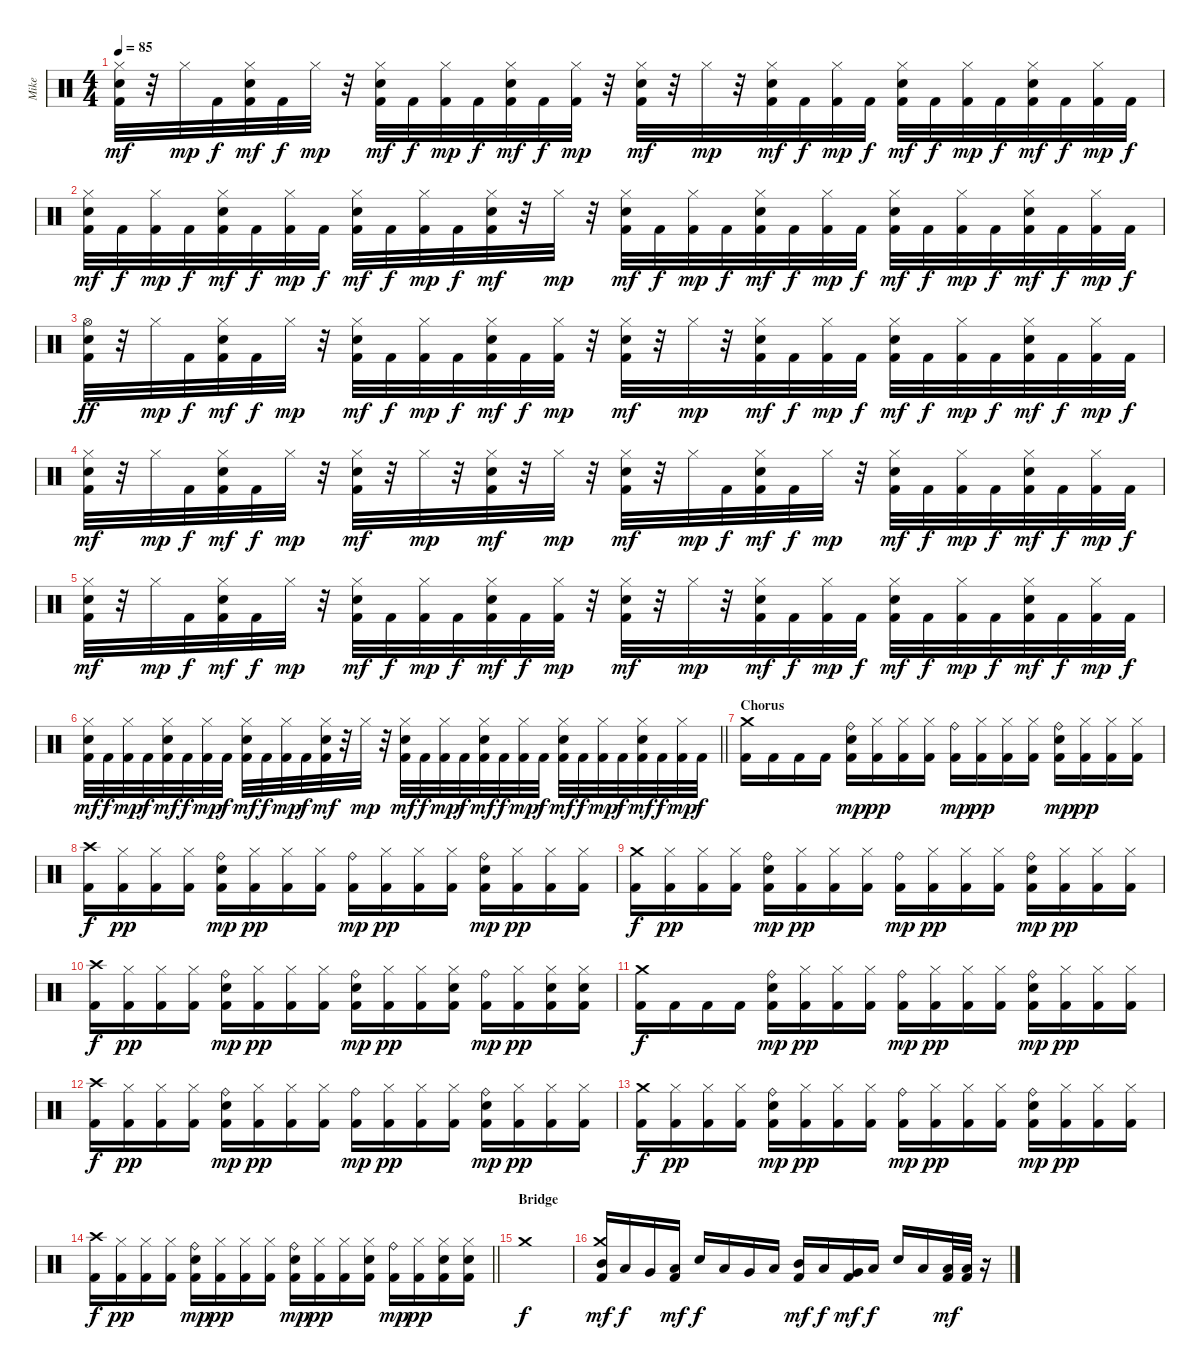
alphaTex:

\track ("Mike" "Mike") {instrument percussion}
\staff {score}
\articulation defaults
\ts (4 4)
\tempo 85
\clef neutral
\ks c
("Hi-Hat (closed)" "Snare (hit) 2" "Kick (hit) 2").32{dy mf} r.32 "Hi-Hat (closed)".32{dy mp} "Kick (hit) 2".32{dy f} ("Hi-Hat (closed)" "Snare (hit) 2" "Kick (hit) 2").32{dy mf} "Kick (hit) 2".32{dy f} "Hi-Hat (closed)".32{dy mp} r.32 ("Hi-Hat (closed)" "Snare (hit) 2" "Kick (hit) 2").32{dy mf} "Kick (hit) 2".32{dy f} ("Hi-Hat (closed)" "Kick (hit) 2").32{dy mp} "Kick (hit) 2".32{dy f} ("Hi-Hat (closed)" "Snare (hit) 2" "Kick (hit) 2").32{dy mf} "Kick (hit) 2".32{dy f} ("Hi-Hat (closed)" "Kick (hit) 2").32{dy mp} r.32 ("Hi-Hat (closed)" "Snare (hit) 2" "Kick (hit) 2").32{dy mf} r.32 "Hi-Hat (closed)".32{dy mp} r.32 ("Hi-Hat (closed)" "Snare (hit) 2" "Kick (hit) 2").32{dy mf} "Kick (hit) 2".32{dy f} ("Hi-Hat (closed)" "Kick (hit) 2").32{dy mp} "Kick (hit) 2".32{dy f} ("Hi-Hat (closed)" "Snare (hit) 2" "Kick (hit) 2").32{dy mf} "Kick (hit) 2".32{dy f} ("Hi-Hat (closed)" "Kick (hit) 2").32{dy mp} "Kick (hit) 2".32{dy f} ("Hi-Hat (closed)" "Snare (hit) 2" "Kick (hit) 2").32{dy mf} "Kick (hit) 2".32{dy f} ("Hi-Hat (closed)" "Kick (hit) 2").32{dy mp} "Kick (hit) 2".32{dy f} |
("Hi-Hat (closed)" "Snare (hit) 2" "Kick (hit) 2").32{dy mf} "Kick (hit) 2".32{dy f} ("Hi-Hat (closed)" "Kick (hit) 2").32{dy mp} "Kick (hit) 2".32{dy f} ("Hi-Hat (closed)" "Snare (hit) 2" "Kick (hit) 2").32{dy mf} "Kick (hit) 2".32{dy f} ("Hi-Hat (closed)" "Kick (hit) 2").32{dy mp} "Kick (hit) 2".32{dy f} ("Hi-Hat (closed)" "Snare (hit) 2" "Kick (hit) 2").32{dy mf} "Kick (hit) 2".32{dy f} ("Hi-Hat (closed)" "Kick (hit) 2").32{dy mp} "Kick (hit) 2".32{dy f} ("Hi-Hat (closed)" "Snare (hit) 2" "Kick (hit) 2").32{dy mf} r.32 "Hi-Hat (closed)".32{dy mp} r.32 ("Hi-Hat (closed)" "Snare (hit) 2" "Kick (hit) 2").32{dy mf} "Kick (hit) 2".32{dy f} ("Hi-Hat (closed)" "Kick (hit) 2").32{dy mp} "Kick (hit) 2".32{dy f} ("Hi-Hat (closed)" "Snare (hit) 2" "Kick (hit) 2").32{dy mf} "Kick (hit) 2".32{dy f} ("Hi-Hat (closed)" "Kick (hit) 2").32{dy mp} "Kick (hit) 2".32{dy f} ("Hi-Hat (closed)" "Snare (hit) 2" "Kick (hit) 2").32{dy mf} "Kick (hit) 2".32{dy f} ("Hi-Hat (closed)" "Kick (hit) 2").32{dy mp} "Kick (hit) 2".32{dy f} ("Hi-Hat (closed)" "Snare (hit) 2" "Kick (hit) 2").32{dy mf} "Kick (hit) 2".32{dy f} ("Hi-Hat (closed)" "Kick (hit) 2").32{dy mp} "Kick (hit) 2".32{dy f} |
("Hi-Hat (open)" "Snare (hit) 2" "Kick (hit) 2").32{dy ff} r.32 "Hi-Hat (closed)".32{dy mp} "Kick (hit) 2".32{dy f} ("Hi-Hat (closed)" "Snare (hit) 2" "Kick (hit) 2").32{dy mf} "Kick (hit) 2".32{dy f} "Hi-Hat (closed)".32{dy mp} r.32 ("Hi-Hat (closed)" "Snare (hit) 2" "Kick (hit) 2").32{dy mf} "Kick (hit) 2".32{dy f} ("Hi-Hat (closed)" "Kick (hit) 2").32{dy mp} "Kick (hit) 2".32{dy f} ("Hi-Hat (closed)" "Snare (hit) 2" "Kick (hit) 2").32{dy mf} "Kick (hit) 2".32{dy f} ("Hi-Hat (closed)" "Kick (hit) 2").32{dy mp} r.32 ("Hi-Hat (closed)" "Snare (hit) 2" "Kick (hit) 2").32{dy mf} r.32 "Hi-Hat (closed)".32{dy mp} r.32 ("Hi-Hat (closed)" "Snare (hit) 2" "Kick (hit) 2").32{dy mf} "Kick (hit) 2".32{dy f} ("Hi-Hat (closed)" "Kick (hit) 2").32{dy mp} "Kick (hit) 2".32{dy f} ("Hi-Hat (closed)" "Snare (hit) 2" "Kick (hit) 2").32{dy mf} "Kick (hit) 2".32{dy f} ("Hi-Hat (closed)" "Kick (hit) 2").32{dy mp} "Kick (hit) 2".32{dy f} ("Hi-Hat (closed)" "Snare (hit) 2" "Kick (hit) 2").32{dy mf} "Kick (hit) 2".32{dy f} ("Hi-Hat (closed)" "Kick (hit) 2").32{dy mp} "Kick (hit) 2".32{dy f} |
("Hi-Hat (closed)" "Snare (hit) 2" "Kick (hit) 2").32{dy mf} r.32 "Hi-Hat (closed)".32{dy mp} "Kick (hit) 2".32{dy f} ("Hi-Hat (closed)" "Snare (hit) 2" "Kick (hit) 2").32{dy mf} "Kick (hit) 2".32{dy f} "Hi-Hat (closed)".32{dy mp} r.32 ("Hi-Hat (closed)" "Snare (hit) 2" "Kick (hit) 2").32{dy mf} r.32 "Hi-Hat (closed)".32{dy mp} r.32 ("Hi-Hat (closed)" "Snare (hit) 2" "Kick (hit) 2").32{dy mf} r.32 "Hi-Hat (closed)".32{dy mp} r.32 ("Hi-Hat (closed)" "Snare (hit) 2" "Kick (hit) 2").32{dy mf} r.32 "Hi-Hat (closed)".32{dy mp} "Kick (hit) 2".32{dy f} ("Hi-Hat (closed)" "Snare (hit) 2" "Kick (hit) 2").32{dy mf} "Kick (hit) 2".32{dy f} "Hi-Hat (closed)".32{dy mp} r.32 ("Hi-Hat (closed)" "Snare (hit) 2" "Kick (hit) 2").32{dy mf} "Kick (hit) 2".32{dy f} ("Hi-Hat (closed)" "Kick (hit) 2").32{dy mp} "Kick (hit) 2".32{dy f} ("Hi-Hat (closed)" "Snare (hit) 2" "Kick (hit) 2").32{dy mf} "Kick (hit) 2".32{dy f} ("Hi-Hat (closed)" "Kick (hit) 2").32{dy mp} "Kick (hit) 2".32{dy f} |
("Hi-Hat (closed)" "Snare (hit) 2" "Kick (hit) 2").32{dy mf} r.32 "Hi-Hat (closed)".32{dy mp} "Kick (hit) 2".32{dy f} ("Hi-Hat (closed)" "Snare (hit) 2" "Kick (hit) 2").32{dy mf} "Kick (hit) 2".32{dy f} "Hi-Hat (closed)".32{dy mp} r.32 ("Hi-Hat (closed)" "Snare (hit) 2" "Kick (hit) 2").32{dy mf} "Kick (hit) 2".32{dy f} ("Hi-Hat (closed)" "Kick (hit) 2").32{dy mp} "Kick (hit) 2".32{dy f} ("Hi-Hat (closed)" "Snare (hit) 2" "Kick (hit) 2").32{dy mf} "Kick (hit) 2".32{dy f} ("Hi-Hat (closed)" "Kick (hit) 2").32{dy mp} r.32 ("Hi-Hat (closed)" "Snare (hit) 2" "Kick (hit) 2").32{dy mf} r.32 "Hi-Hat (closed)".32{dy mp} r.32 ("Hi-Hat (closed)" "Snare (hit) 2" "Kick (hit) 2").32{dy mf} "Kick (hit) 2".32{dy f} ("Hi-Hat (closed)" "Kick (hit) 2").32{dy mp} "Kick (hit) 2".32{dy f} ("Hi-Hat (closed)" "Snare (hit) 2" "Kick (hit) 2").32{dy mf} "Kick (hit) 2".32{dy f} ("Hi-Hat (closed)" "Kick (hit) 2").32{dy mp} "Kick (hit) 2".32{dy f} ("Hi-Hat (closed)" "Snare (hit) 2" "Kick (hit) 2").32{dy mf} "Kick (hit) 2".32{dy f} ("Hi-Hat (closed)" "Kick (hit) 2").32{dy mp} "Kick (hit) 2".32{dy f} |
\barLineRight lightlight
("Hi-Hat (closed)" "Snare (hit) 2" "Kick (hit) 2").32{dy mf} "Kick (hit) 2".32{dy f} ("Hi-Hat (closed)" "Kick (hit) 2").32{dy mp} "Kick (hit) 2".32{dy f} ("Hi-Hat (closed)" "Snare (hit) 2" "Kick (hit) 2").32{dy mf} "Kick (hit) 2".32{dy f} ("Hi-Hat (closed)" "Kick (hit) 2").32{dy mp} "Kick (hit) 2".32{dy f} ("Hi-Hat (closed)" "Snare (hit) 2" "Kick (hit) 2").32{dy mf} "Kick (hit) 2".32{dy f} ("Hi-Hat (closed)" "Kick (hit) 2").32{dy mp} "Kick (hit) 2".32{dy f} ("Hi-Hat (closed)" "Snare (hit) 2" "Kick (hit) 2").32{dy mf} r.32 "Hi-Hat (closed)".32{dy mp} r.32 ("Hi-Hat (closed)" "Snare (hit) 2" "Kick (hit) 2").32{dy mf} "Kick (hit) 2".32{dy f} ("Hi-Hat (closed)" "Kick (hit) 2").32{dy mp} "Kick (hit) 2".32{dy f} ("Hi-Hat (closed)" "Snare (hit) 2" "Kick (hit) 2").32{dy mf} "Kick (hit) 2".32{dy f} ("Hi-Hat (closed)" "Kick (hit) 2").32{dy mp} "Kick (hit) 2".32{dy f} ("Hi-Hat (closed)" "Snare (hit) 2" "Kick (hit) 2").32{dy mf} "Kick (hit) 2".32{dy f} ("Hi-Hat (closed)" "Kick (hit) 2").32{dy mp} "Kick (hit) 2".32{dy f} ("Hi-Hat (closed)" "Snare (hit) 2" "Kick (hit) 2").32{dy mf} "Kick (hit) 2".32{dy f} ("Hi-Hat (closed)" "Kick (hit) 2").32{dy mp} "Kick (hit) 2".32{dy f} |
\section ("" "Chorus")
("Crash medium (hit)" "Kick (hit) 2").16 "Kick (hit) 2".16 "Kick (hit) 2".16 "Kick (hit) 2".16 ("Ride (bell)" "Snare (hit) 2" "Kick (hit) 2").16{dy mp} ("Hi-Hat (closed)" "Kick (hit) 2").16{dy pp} ("Hi-Hat (closed)" "Kick (hit) 2").16 ("Hi-Hat (closed)" "Kick (hit) 2").16 ("Ride (bell)" "Kick (hit) 2").16{dy mp} ("Hi-Hat (closed)" "Kick (hit) 2").16{dy pp} ("Hi-Hat (closed)" "Kick (hit) 2").16 ("Hi-Hat (closed)" "Kick (hit) 2").16 ("Ride (bell)" "Snare (hit) 2" "Kick (hit) 2").16{dy mp} ("Hi-Hat (closed)" "Kick (hit) 2").16{dy pp} ("Hi-Hat (closed)" "Kick (hit) 2").16 ("Hi-Hat (closed)" "Kick (hit) 2").16 |
("Crash high (hit)" "Kick (hit) 2").16{dy f} ("Hi-Hat (closed)" "Kick (hit) 2").16{dy pp} ("Hi-Hat (closed)" "Kick (hit) 2").16 ("Hi-Hat (closed)" "Kick (hit) 2").16 ("Ride (bell)" "Snare (hit) 2" "Kick (hit) 2").16{dy mp} ("Hi-Hat (closed)" "Kick (hit) 2").16{dy pp} ("Hi-Hat (closed)" "Kick (hit) 2").16 ("Hi-Hat (closed)" "Kick (hit) 2").16 ("Ride (bell)" "Kick (hit) 2").16{dy mp} ("Hi-Hat (closed)" "Kick (hit) 2").16{dy pp} ("Hi-Hat (closed)" "Kick (hit) 2").16 ("Hi-Hat (closed)" "Kick (hit) 2").16 ("Ride (bell)" "Snare (hit) 2" "Kick (hit) 2").16{dy mp} ("Hi-Hat (closed)" "Kick (hit) 2").16{dy pp} ("Hi-Hat (closed)" "Kick (hit) 2").16 ("Hi-Hat (closed)" "Kick (hit) 2").16 |
("Crash medium (hit)" "Kick (hit) 2").16{dy f} ("Hi-Hat (closed)" "Kick (hit) 2").16{dy pp} ("Hi-Hat (closed)" "Kick (hit) 2").16 ("Hi-Hat (closed)" "Kick (hit) 2").16 ("Ride (bell)" "Snare (hit) 2" "Kick (hit) 2").16{dy mp} ("Hi-Hat (closed)" "Kick (hit) 2").16{dy pp} ("Hi-Hat (closed)" "Kick (hit) 2").16 ("Hi-Hat (closed)" "Kick (hit) 2").16 ("Ride (bell)" "Kick (hit) 2").16{dy mp} ("Hi-Hat (closed)" "Kick (hit) 2").16{dy pp} ("Hi-Hat (closed)" "Kick (hit) 2").16 ("Hi-Hat (closed)" "Kick (hit) 2").16 ("Ride (bell)" "Snare (hit) 2" "Kick (hit) 2").16{dy mp} ("Hi-Hat (closed)" "Kick (hit) 2").16{dy pp} ("Hi-Hat (closed)" "Kick (hit) 2").16 ("Hi-Hat (closed)" "Kick (hit) 2").16 |
("Crash high (hit)" "Kick (hit) 2").16{dy f} ("Hi-Hat (closed)" "Kick (hit) 2").16{dy pp} ("Hi-Hat (closed)" "Kick (hit) 2").16 ("Hi-Hat (closed)" "Kick (hit) 2").16 ("Ride (bell)" "Snare (hit) 2" "Kick (hit) 2").16{dy mp} ("Hi-Hat (closed)" "Kick (hit) 2").16{dy pp} ("Hi-Hat (closed)" "Kick (hit) 2").16 ("Hi-Hat (closed)" "Kick (hit) 2").16 ("Ride (bell)" "Snare (hit) 2" "Kick (hit) 2").16{dy mp} ("Hi-Hat (closed)" "Kick (hit) 2").16{dy pp} ("Hi-Hat (closed)" "Kick (hit) 2").16 ("Hi-Hat (closed)" "Snare (hit) 2" "Kick (hit) 2").16 ("Ride (bell)" "Kick (hit) 2").16{dy mp} ("Hi-Hat (closed)" "Kick (hit) 2").16{dy pp} ("Hi-Hat (closed)" "Snare (hit) 2" "Kick (hit) 2").16 ("Hi-Hat (closed)" "Snare (hit) 2" "Kick (hit) 2").16 |
("Crash medium (hit)" "Kick (hit) 2").16{dy f} "Kick (hit) 2".16 "Kick (hit) 2".16 "Kick (hit) 2".16 ("Ride (bell)" "Snare (hit) 2" "Kick (hit) 2").16{dy mp} ("Hi-Hat (closed)" "Kick (hit) 2").16{dy pp} ("Hi-Hat (closed)" "Kick (hit) 2").16 ("Hi-Hat (closed)" "Kick (hit) 2").16 ("Ride (bell)" "Kick (hit) 2").16{dy mp} ("Hi-Hat (closed)" "Kick (hit) 2").16{dy pp} ("Hi-Hat (closed)" "Kick (hit) 2").16 ("Hi-Hat (closed)" "Kick (hit) 2").16 ("Ride (bell)" "Snare (hit) 2" "Kick (hit) 2").16{dy mp} ("Hi-Hat (closed)" "Kick (hit) 2").16{dy pp} ("Hi-Hat (closed)" "Kick (hit) 2").16 ("Hi-Hat (closed)" "Kick (hit) 2").16 |
("Crash high (hit)" "Kick (hit) 2").16{dy f} ("Hi-Hat (closed)" "Kick (hit) 2").16{dy pp} ("Hi-Hat (closed)" "Kick (hit) 2").16 ("Hi-Hat (closed)" "Kick (hit) 2").16 ("Ride (bell)" "Snare (hit) 2" "Kick (hit) 2").16{dy mp} ("Hi-Hat (closed)" "Kick (hit) 2").16{dy pp} ("Hi-Hat (closed)" "Kick (hit) 2").16 ("Hi-Hat (closed)" "Kick (hit) 2").16 ("Ride (bell)" "Kick (hit) 2").16{dy mp} ("Hi-Hat (closed)" "Kick (hit) 2").16{dy pp} ("Hi-Hat (closed)" "Kick (hit) 2").16 ("Hi-Hat (closed)" "Kick (hit) 2").16 ("Ride (bell)" "Snare (hit) 2" "Kick (hit) 2").16{dy mp} ("Hi-Hat (closed)" "Kick (hit) 2").16{dy pp} ("Hi-Hat (closed)" "Kick (hit) 2").16 ("Hi-Hat (closed)" "Kick (hit) 2").16 |
("Crash medium (hit)" "Kick (hit) 2").16{dy f} ("Hi-Hat (closed)" "Kick (hit) 2").16{dy pp} ("Hi-Hat (closed)" "Kick (hit) 2").16 ("Hi-Hat (closed)" "Kick (hit) 2").16 ("Ride (bell)" "Snare (hit) 2" "Kick (hit) 2").16{dy mp} ("Hi-Hat (closed)" "Kick (hit) 2").16{dy pp} ("Hi-Hat (closed)" "Kick (hit) 2").16 ("Hi-Hat (closed)" "Kick (hit) 2").16 ("Ride (bell)" "Kick (hit) 2").16{dy mp} ("Hi-Hat (closed)" "Kick (hit) 2").16{dy pp} ("Hi-Hat (closed)" "Kick (hit) 2").16 ("Hi-Hat (closed)" "Kick (hit) 2").16 ("Ride (bell)" "Snare (hit) 2" "Kick (hit) 2").16{dy mp} ("Hi-Hat (closed)" "Kick (hit) 2").16{dy pp} ("Hi-Hat (closed)" "Kick (hit) 2").16 ("Hi-Hat (closed)" "Kick (hit) 2").16 |
\barLineRight lightlight
("Crash high (hit)" "Kick (hit) 2").16{dy f} ("Hi-Hat (closed)" "Kick (hit) 2").16{dy pp} ("Hi-Hat (closed)" "Kick (hit) 2").16 ("Hi-Hat (closed)" "Kick (hit) 2").16 ("Ride (bell)" "Snare (hit) 2" "Kick (hit) 2").16{dy mp} ("Hi-Hat (closed)" "Kick (hit) 2").16{dy pp} ("Hi-Hat (closed)" "Kick (hit) 2").16 ("Hi-Hat (closed)" "Kick (hit) 2").16 ("Ride (bell)" "Snare (hit) 2" "Kick (hit) 2").16{dy mp} ("Hi-Hat (closed)" "Kick (hit) 2").16{dy pp} ("Hi-Hat (closed)" "Kick (hit) 2").16 ("Hi-Hat (closed)" "Snare (hit) 2" "Kick (hit) 2").16 ("Ride (bell)" "Kick (hit) 2").16{dy mp} ("Hi-Hat (closed)" "Kick (hit) 2").16{dy pp} ("Hi-Hat (closed)" "Snare (hit) 2" "Kick (hit) 2").16 ("Hi-Hat (closed)" "Snare (hit) 2" "Kick (hit) 2").16 |
\section ("" "Bridge")
"Crash medium (hit)".1{dy f} |
("Crash medium (hit)" "Mid Tom (hit)" "Kick (hit) 2").16{dy mf} "Low Tom (hit)".16{dy f} "Very Low Tom (hit)".16 ("Low Tom (hit)" "Kick (hit) 2").16{dy mf} "Snare (hit) 2".16{dy f} "Low Tom (hit)".16 "Very Low Tom (hit)".16 "Low Floor Tom (hit)".16 ("Mid Tom (hit)" "Kick (hit) 2").16{dy mf} "Low Tom (hit)".16{dy f} ("Very Low Tom (hit)" "Kick (hit) 2").16{dy mf} "Low Tom (hit)".16{dy f} "Snare (hit) 2".16 "Low Tom (hit)".16 ("Low Floor Tom (hit)" "Kick (hit) 2").32{dy mf} ("Low Floor Tom (hit)" "Kick (hit) 2").32 r.16
